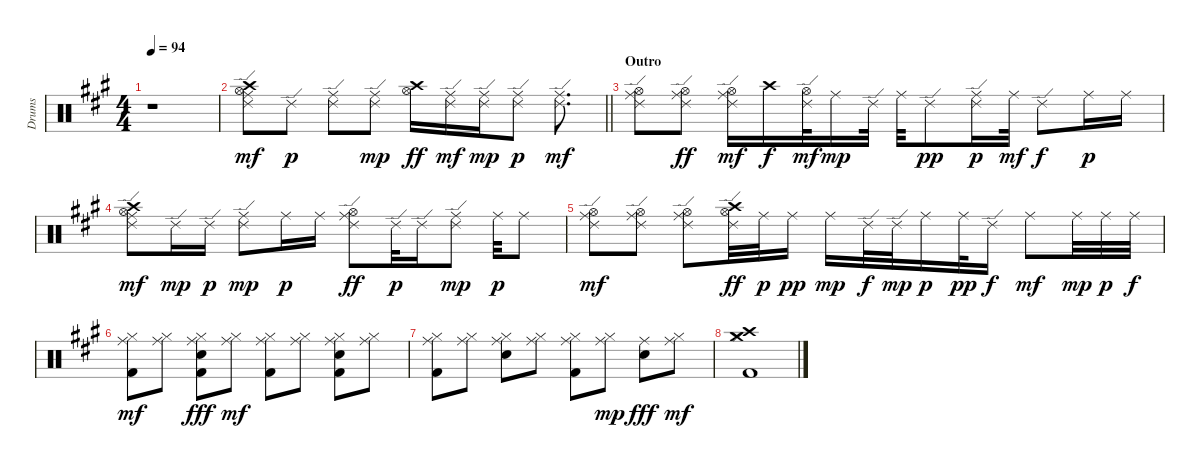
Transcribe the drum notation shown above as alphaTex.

\track ("Drums" "Drums") {instrument percussion}
\staff {score}
\articulation defaults
\ts (4 4)
\tempo 94
\clef neutral
\ks a
r.1{dy ff} |
\barLineRight lightlight
("Crash high (hit)" "Ride (edge) 2" "Ride (middle)" "Hi-Hat (open)").8{dy mf} "Ride (edge) 2".8{dy p} ("Ride (middle)" "Ride (edge) 2").8 ("Ride (middle)" "Ride (edge) 2").8{dy mp} ("Crash high (hit)" "Hi-Hat (open)").16{dy ff} ("Ride (middle)" "Ride (edge) 2").16{dy mf} ("Ride (middle)" "Ride (edge) 2").16{dy mp} ("Ride (middle)" "Ride (edge) 2").8{dy p} ("Ride (edge) 2" "Ride (middle)").8{d dy mf} |
\section ("" "Outro")
("Hi-Hat (open)" "Ride (edge) 2" "Ride (middle)").8 ("Ride (middle)" "Ride (edge) 2" "Hi-Hat (open)").8{dy ff} ("Ride (middle)" "Ride (edge) 2" "Hi-Hat (open)").16{dy mf} "Crash high (hit)".16{dy f} ("Hi-Hat (open)" "Ride (edge) 2").32{dy mf} "Ride (middle)".16{dy mp} "Ride (edge) 2".32 "Ride (middle)".32 "Ride (edge) 2".8{dy pp} ("Ride (edge) 2" "Ride (middle)").16{dy p} "Ride (middle)".32{dy mf} "Ride (edge) 2".8{dy f} "Ride (middle)".16{dy p} "Ride (middle)".16 |
("Crash high (hit)" "Hi-Hat (open)" "Ride (middle)" "Ride (edge) 2").8{dy mf} "Ride (edge) 2".16{dy mp} "Ride (edge) 2".16{dy p} ("Ride (edge) 2" "Ride (middle)").8{dy mp} "Ride (middle)".16{dy p} "Ride (middle)".16 ("Hi-Hat (open)" "Ride (middle)" "Ride (edge) 2").8{dy ff} "Ride (edge) 2".32{dy p} "Ride (edge) 2".16 ("Ride (middle)" "Ride (edge) 2").8{dy mp} "Ride (middle)".32{dy p} "Ride (middle)".8 |
("Ride (middle)" "Hi-Hat (open)" "Ride (edge) 2").8{dy mf} ("Ride (middle)" "Hi-Hat (open)" "Ride (edge) 2").8 ("Hi-Hat (open)" "Ride (middle)" "Ride (edge) 2").8 ("Crash high (hit)" "Hi-Hat (open)" "Ride (edge) 2").32{dy ff} "Ride (middle)".32{dy p} "Ride (middle)".16{dy pp} "Ride (middle)".16{dy mp} "Ride (edge) 2".32{dy f} "Ride (edge) 2".32{dy mp} "Ride (middle)".16{dy p} "Ride (middle)".32{dy pp} "Ride (edge) 2".16{dy f} "Ride (middle)".8{dy mf} "Ride (middle)".32{dy mp} "Ride (middle)".32{dy p} "Ride (middle)".32{dy f} |
("Kick (hit) 2" "Hi-Hat (closed)" "Ride (middle)").8{dy mf} ("Hi-Hat (closed)" "Ride (middle)").8 ("Kick (hit) 2" "Electric Snare (hit)" "Hi-Hat (closed)" "Ride (middle)").8{dy fff} ("Hi-Hat (closed)" "Ride (middle)").8{dy mf} ("Kick (hit) 2" "Hi-Hat (closed)" "Ride (middle)").8 ("Hi-Hat (closed)" "Ride (middle)").8 ("Kick (hit) 2" "Electric Snare (hit)" "Hi-Hat (closed)" "Ride (middle)").8 ("Hi-Hat (closed)" "Ride (middle)").8 |
("Kick (hit) 2" "Hi-Hat (closed)" "Ride (middle)").8 ("Hi-Hat (closed)" "Ride (middle)").8 ("Electric Snare (hit)" "Hi-Hat (closed)" "Ride (middle)").8 ("Hi-Hat (closed)" "Ride (middle)").8 ("Kick (hit) 2" "Hi-Hat (closed)" "Ride (middle)").8 ("Hi-Hat (closed)" "Ride (middle)").8{dy mp} ("Electric Snare (hit)" "Ride (middle)").8{dy fff} ("Hi-Hat (closed)" "Ride (middle)").8{dy mf} |
("Kick (hit) 2" "Hi-Hat (closed)" "Crash high (hit)" "Crash medium (hit)").1
